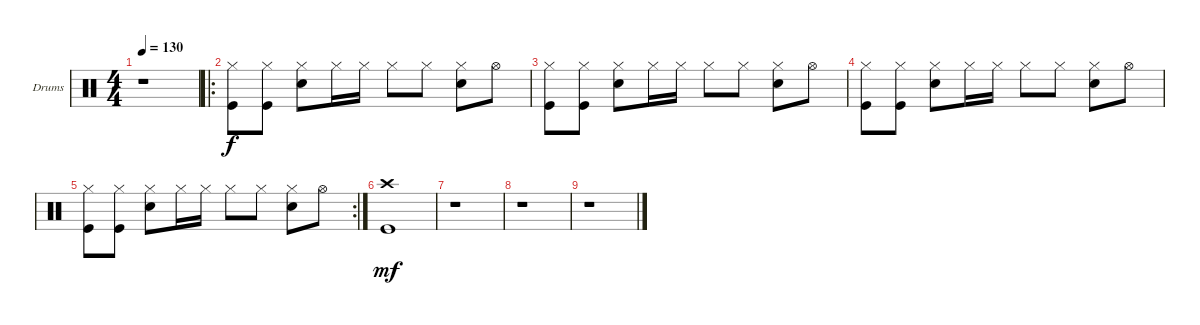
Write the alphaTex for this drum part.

\bracketExtendMode groupsimilarinstruments
\firstSystemTrackNameOrientation horizontal
\otherSystemsTrackNameOrientation horizontal
\track ("Drumkit" "Drums") {instrument percussion}
\staff {score}
\articulation defaults
\ts (4 4)
\tempo 130
\clef neutral
\ks c
r.1{dy p} |
\ro
("Hi-Hat (closed)" "Kick (hit)").8{dy f} ("Hi-Hat (closed)" "Kick (hit)").8 ("Hi-Hat (closed)" "Snare (hit) 2").8 "Hi-Hat (closed)".16 "Hi-Hat (closed)".16 "Hi-Hat (closed)".8 "Hi-Hat (closed)".8 ("Hi-Hat (closed)" "Snare (hit) 2").8 "Hi-Hat (open)".8 |
("Hi-Hat (closed)" "Kick (hit)").8 ("Hi-Hat (closed)" "Kick (hit)").8 ("Hi-Hat (closed)" "Snare (hit) 2").8 "Hi-Hat (closed)".16 "Hi-Hat (closed)".16 "Hi-Hat (closed)".8 "Hi-Hat (closed)".8 ("Hi-Hat (closed)" "Snare (hit) 2").8 "Hi-Hat (open)".8 |
("Hi-Hat (closed)" "Kick (hit)").8 ("Hi-Hat (closed)" "Kick (hit)").8 ("Hi-Hat (closed)" "Snare (hit) 2").8 "Hi-Hat (closed)".16 "Hi-Hat (closed)".16 "Hi-Hat (closed)".8 "Hi-Hat (closed)".8 ("Hi-Hat (closed)" "Snare (hit) 2").8 "Hi-Hat (open)".8 |
\rc 2
("Hi-Hat (closed)" "Kick (hit)").8 ("Hi-Hat (closed)" "Kick (hit)").8 ("Hi-Hat (closed)" "Snare (hit) 2").8 "Hi-Hat (closed)".16 "Hi-Hat (closed)".16 "Hi-Hat (closed)".8 "Hi-Hat (closed)".8 ("Hi-Hat (closed)" "Snare (hit) 2").8 "Hi-Hat (open)".8 |
("Crash high (hit)" "Kick (hit)").1{dy mf} |
r.1 |
r.1 |
r.1
